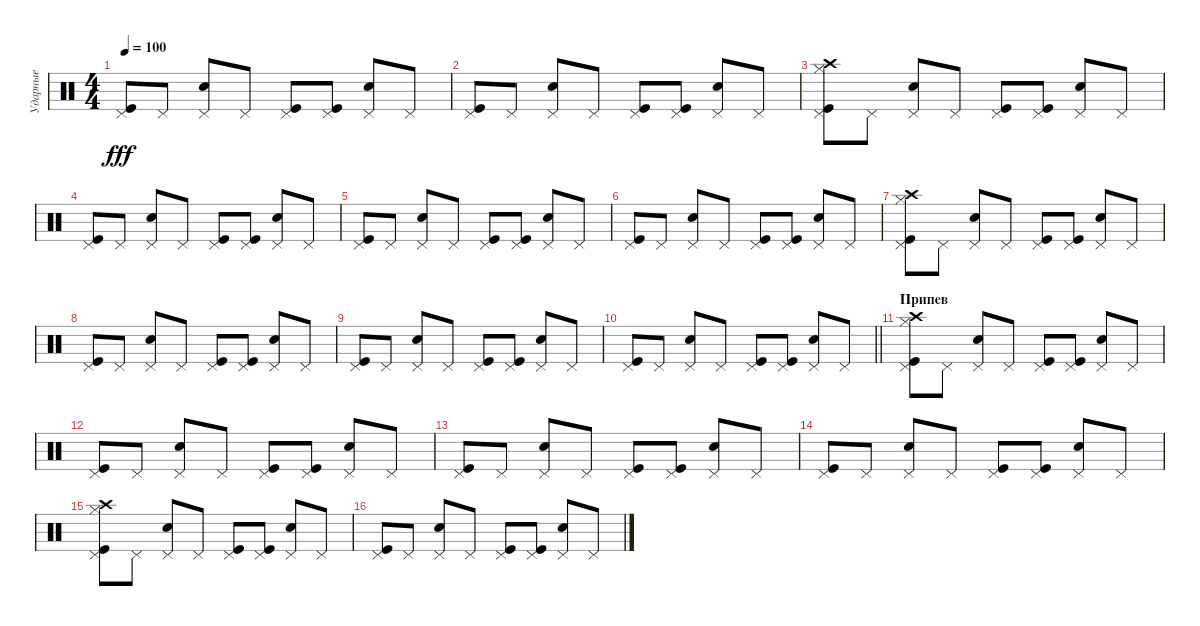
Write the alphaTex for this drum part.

\track ("Ударные" "Ударные") {instrument percussion}
\staff {score}
\articulation defaults
\ts (4 4)
\tempo 100
\clef neutral
\ks c
("Pedal Hi-Hat (hit)" "Kick (hit)").8{dy fff} "Pedal Hi-Hat (hit)".8 ("Pedal Hi-Hat (hit)" "Snare (hit) 2").8 "Pedal Hi-Hat (hit)".8 ("Pedal Hi-Hat (hit)" "Kick (hit)").8 ("Pedal Hi-Hat (hit)" "Kick (hit)").8 ("Pedal Hi-Hat (hit)" "Snare (hit) 2").8 "Pedal Hi-Hat (hit)".8 |
("Pedal Hi-Hat (hit)" "Kick (hit)").8 "Pedal Hi-Hat (hit)".8 ("Pedal Hi-Hat (hit)" "Snare (hit) 2").8 "Pedal Hi-Hat (hit)".8 ("Pedal Hi-Hat (hit)" "Kick (hit)").8 ("Pedal Hi-Hat (hit)" "Kick (hit)").8 ("Pedal Hi-Hat (hit)" "Snare (hit) 2").8 "Pedal Hi-Hat (hit)".8 |
("Pedal Hi-Hat (hit)" "Crash high (hit)" "Hi-Hat (closed)" "Kick (hit)").8 "Pedal Hi-Hat (hit)".8 ("Pedal Hi-Hat (hit)" "Snare (hit) 2").8 "Pedal Hi-Hat (hit)".8 ("Pedal Hi-Hat (hit)" "Kick (hit)").8 ("Pedal Hi-Hat (hit)" "Kick (hit)").8 ("Pedal Hi-Hat (hit)" "Snare (hit) 2").8 "Pedal Hi-Hat (hit)".8 |
("Pedal Hi-Hat (hit)" "Kick (hit)").8 "Pedal Hi-Hat (hit)".8 ("Pedal Hi-Hat (hit)" "Snare (hit) 2").8 "Pedal Hi-Hat (hit)".8 ("Pedal Hi-Hat (hit)" "Kick (hit)").8 ("Pedal Hi-Hat (hit)" "Kick (hit)").8 ("Pedal Hi-Hat (hit)" "Snare (hit) 2").8 "Pedal Hi-Hat (hit)".8 |
("Pedal Hi-Hat (hit)" "Kick (hit)").8 "Pedal Hi-Hat (hit)".8 ("Pedal Hi-Hat (hit)" "Snare (hit) 2").8 "Pedal Hi-Hat (hit)".8 ("Pedal Hi-Hat (hit)" "Kick (hit)").8 ("Pedal Hi-Hat (hit)" "Kick (hit)").8 ("Pedal Hi-Hat (hit)" "Snare (hit) 2").8 "Pedal Hi-Hat (hit)".8 |
("Pedal Hi-Hat (hit)" "Kick (hit)").8 "Pedal Hi-Hat (hit)".8 ("Pedal Hi-Hat (hit)" "Snare (hit) 2").8 "Pedal Hi-Hat (hit)".8 ("Pedal Hi-Hat (hit)" "Kick (hit)").8 ("Pedal Hi-Hat (hit)" "Kick (hit)").8 ("Pedal Hi-Hat (hit)" "Snare (hit) 2").8 "Pedal Hi-Hat (hit)".8 |
("Pedal Hi-Hat (hit)" "Crash high (hit)" "Hi-Hat (closed)" "Kick (hit)").8 "Pedal Hi-Hat (hit)".8 ("Pedal Hi-Hat (hit)" "Snare (hit) 2").8 "Pedal Hi-Hat (hit)".8 ("Pedal Hi-Hat (hit)" "Kick (hit)").8 ("Pedal Hi-Hat (hit)" "Kick (hit)").8 ("Pedal Hi-Hat (hit)" "Snare (hit) 2").8 "Pedal Hi-Hat (hit)".8 |
("Pedal Hi-Hat (hit)" "Kick (hit)").8 "Pedal Hi-Hat (hit)".8 ("Pedal Hi-Hat (hit)" "Snare (hit) 2").8 "Pedal Hi-Hat (hit)".8 ("Pedal Hi-Hat (hit)" "Kick (hit)").8 ("Pedal Hi-Hat (hit)" "Kick (hit)").8 ("Pedal Hi-Hat (hit)" "Snare (hit) 2").8 "Pedal Hi-Hat (hit)".8 |
("Pedal Hi-Hat (hit)" "Kick (hit)").8 "Pedal Hi-Hat (hit)".8 ("Pedal Hi-Hat (hit)" "Snare (hit) 2").8 "Pedal Hi-Hat (hit)".8 ("Pedal Hi-Hat (hit)" "Kick (hit)").8 ("Pedal Hi-Hat (hit)" "Kick (hit)").8 ("Pedal Hi-Hat (hit)" "Snare (hit) 2").8 "Pedal Hi-Hat (hit)".8 |
\barLineRight lightlight
("Pedal Hi-Hat (hit)" "Kick (hit)").8 "Pedal Hi-Hat (hit)".8 ("Pedal Hi-Hat (hit)" "Snare (hit) 2").8 "Pedal Hi-Hat (hit)".8 ("Pedal Hi-Hat (hit)" "Kick (hit)").8 ("Pedal Hi-Hat (hit)" "Kick (hit)").8 ("Pedal Hi-Hat (hit)" "Snare (hit) 2").8 "Pedal Hi-Hat (hit)".8 |
\section ("" "Припев")
("Pedal Hi-Hat (hit)" "Crash high (hit)" "Hi-Hat (closed)" "Kick (hit)").8 "Pedal Hi-Hat (hit)".8 ("Pedal Hi-Hat (hit)" "Snare (hit) 2").8 "Pedal Hi-Hat (hit)".8 ("Pedal Hi-Hat (hit)" "Kick (hit)").8 ("Pedal Hi-Hat (hit)" "Kick (hit)").8 ("Pedal Hi-Hat (hit)" "Snare (hit) 2").8 "Pedal Hi-Hat (hit)".8 |
("Pedal Hi-Hat (hit)" "Kick (hit)").8 "Pedal Hi-Hat (hit)".8 ("Pedal Hi-Hat (hit)" "Snare (hit) 2").8 "Pedal Hi-Hat (hit)".8 ("Pedal Hi-Hat (hit)" "Kick (hit)").8 ("Pedal Hi-Hat (hit)" "Kick (hit)").8 ("Pedal Hi-Hat (hit)" "Snare (hit) 2").8 "Pedal Hi-Hat (hit)".8 |
("Pedal Hi-Hat (hit)" "Kick (hit)").8 "Pedal Hi-Hat (hit)".8 ("Pedal Hi-Hat (hit)" "Snare (hit) 2").8 "Pedal Hi-Hat (hit)".8 ("Pedal Hi-Hat (hit)" "Kick (hit)").8 ("Pedal Hi-Hat (hit)" "Kick (hit)").8 ("Pedal Hi-Hat (hit)" "Snare (hit) 2").8 "Pedal Hi-Hat (hit)".8 |
("Pedal Hi-Hat (hit)" "Kick (hit)").8 "Pedal Hi-Hat (hit)".8 ("Pedal Hi-Hat (hit)" "Snare (hit) 2").8 "Pedal Hi-Hat (hit)".8 ("Pedal Hi-Hat (hit)" "Kick (hit)").8 ("Pedal Hi-Hat (hit)" "Kick (hit)").8 ("Pedal Hi-Hat (hit)" "Snare (hit) 2").8 "Pedal Hi-Hat (hit)".8 |
("Pedal Hi-Hat (hit)" "Crash high (hit)" "Hi-Hat (closed)" "Kick (hit)").8 "Pedal Hi-Hat (hit)".8 ("Pedal Hi-Hat (hit)" "Snare (hit) 2").8 "Pedal Hi-Hat (hit)".8 ("Pedal Hi-Hat (hit)" "Kick (hit)").8 ("Pedal Hi-Hat (hit)" "Kick (hit)").8 ("Pedal Hi-Hat (hit)" "Snare (hit) 2").8 "Pedal Hi-Hat (hit)".8 |
("Pedal Hi-Hat (hit)" "Kick (hit)").8 "Pedal Hi-Hat (hit)".8 ("Pedal Hi-Hat (hit)" "Snare (hit) 2").8 "Pedal Hi-Hat (hit)".8 ("Pedal Hi-Hat (hit)" "Kick (hit)").8 ("Pedal Hi-Hat (hit)" "Kick (hit)").8 ("Pedal Hi-Hat (hit)" "Snare (hit) 2").8 "Pedal Hi-Hat (hit)".8
